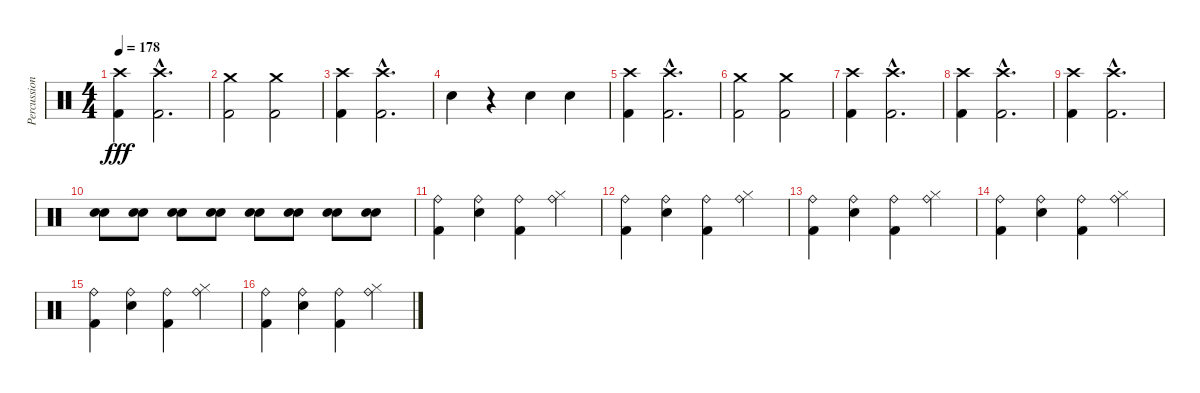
\track ("Percussion" "Percussion") {instrument percussion}
\staff {score}
\articulation defaults
\ts (4 4)
\tempo 178
\clef neutral
\ks c
("Crash high (hit)" "Kick (hit) 2").4{dy fff} ("Crash high (hit)"{hac} "Kick (hit) 2"{hac}).2{d} |
("Crash medium (hit)" "Kick (hit) 2").2 ("Crash medium (hit)" "Kick (hit) 2").2 |
("Crash high (hit)" "Kick (hit) 2").4 ("Crash high (hit)"{hac} "Kick (hit) 2"{hac}).2{d} |
"Electric Snare (hit)".4 r.4 "Electric Snare (hit)".4 "Electric Snare (hit)".4 |
("Crash high (hit)" "Kick (hit) 2").4 ("Crash high (hit)"{hac} "Kick (hit) 2"{hac}).2{d} |
("Crash medium (hit)" "Kick (hit) 2").2 ("Crash medium (hit)" "Kick (hit) 2").2 |
("Crash high (hit)" "Kick (hit) 2").4 ("Crash high (hit)"{hac} "Kick (hit) 2"{hac}).2{d} |
("Crash high (hit)" "Kick (hit) 2").4 ("Crash high (hit)"{hac} "Kick (hit) 2"{hac}).2{d} |
("Crash high (hit)" "Kick (hit) 2").4 ("Crash high (hit)"{hac} "Kick (hit) 2"{hac}).2{d} |
("Electric Snare (hit)" "Snare (hit) 2").8 ("Electric Snare (hit)" "Snare (hit) 2").8 ("Electric Snare (hit)" "Snare (hit) 2").8 ("Electric Snare (hit)" "Snare (hit) 2").8 ("Electric Snare (hit)" "Snare (hit) 2").8 ("Electric Snare (hit)" "Snare (hit) 2").8 ("Electric Snare (hit)" "Snare (hit) 2").8 ("Electric Snare (hit)" "Snare (hit) 2").8 |
("Ride (bell)" "Kick (hit) 2").4 ("Ride (bell)" "Electric Snare (hit)").4 ("Ride (bell)" "Kick (hit) 2").4 ("Ride (bell)" "Hi-Hat (closed)").4 |
("Ride (bell)" "Kick (hit) 2").4 ("Ride (bell)" "Electric Snare (hit)").4 ("Ride (bell)" "Kick (hit) 2").4 ("Ride (bell)" "Hi-Hat (closed)").4 |
("Ride (bell)" "Kick (hit) 2").4 ("Ride (bell)" "Electric Snare (hit)").4 ("Ride (bell)" "Kick (hit) 2").4 ("Ride (bell)" "Hi-Hat (closed)").4 |
("Ride (bell)" "Kick (hit) 2").4 ("Ride (bell)" "Electric Snare (hit)").4 ("Ride (bell)" "Kick (hit) 2").4 ("Ride (bell)" "Hi-Hat (closed)").4 |
("Ride (bell)" "Kick (hit) 2").4 ("Ride (bell)" "Electric Snare (hit)").4 ("Ride (bell)" "Kick (hit) 2").4 ("Ride (bell)" "Hi-Hat (closed)").4 |
("Ride (bell)" "Kick (hit) 2").4 ("Ride (bell)" "Electric Snare (hit)").4 ("Ride (bell)" "Kick (hit) 2").4 ("Ride (bell)" "Hi-Hat (closed)").4
